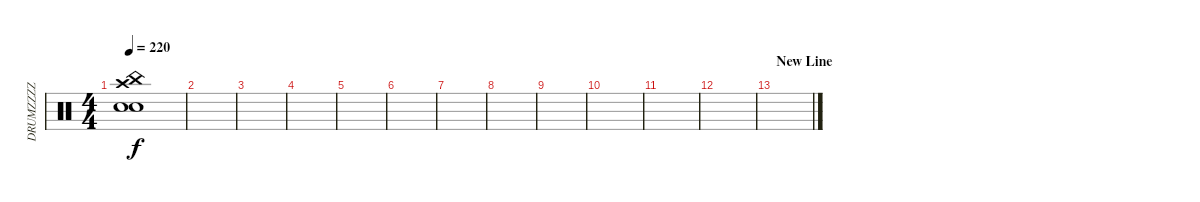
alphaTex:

\track ("DRUMZZZZ" "DRUMZZZZ") {instrument percussion}
\staff {score}
\articulation defaults
\ts (4 4)
\tempo 220
\clef neutral
\ks c
("Crash high (hit)" "China (hit)" "Snare (hit) 2" "Electric Snare (hit)").1{dy f} |
|
|
|
|
|
|
|
|
|
|
|
\section ("" "New Line")
